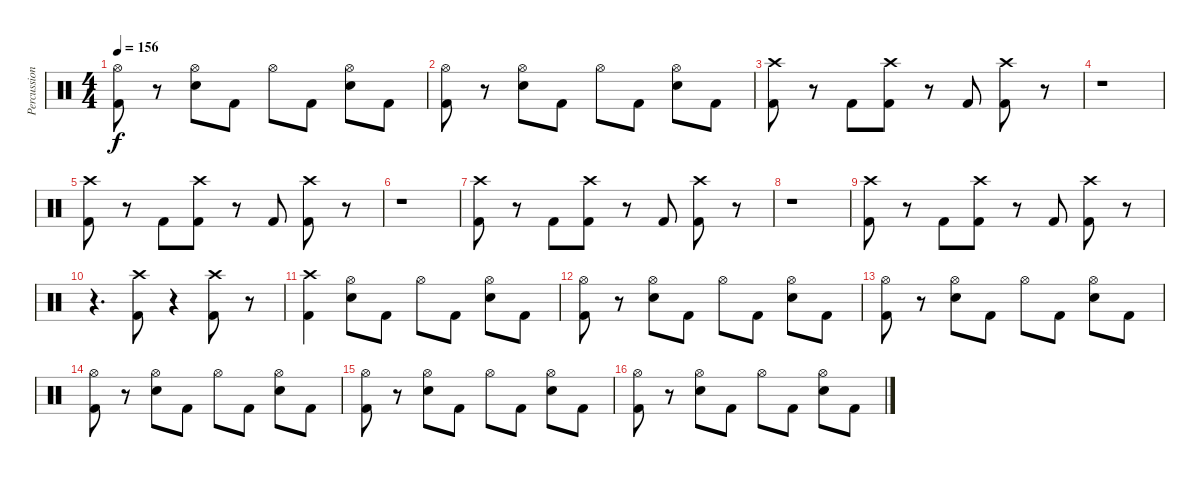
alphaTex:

\track ("Percussion" "Percussion") {instrument percussion}
\staff {score}
\articulation defaults
\ts (4 4)
\tempo 156
\clef neutral
\ks c
("Hi-Hat (open)" "Kick (hit) 2").8{dy f} r.8 ("Hi-Hat (open)" "Snare (hit) 2").8 "Kick (hit) 2".8 "Hi-Hat (open)".8 "Kick (hit) 2".8 ("Hi-Hat (open)" "Snare (hit) 2").8 "Kick (hit) 2".8 |
("Hi-Hat (open)" "Kick (hit) 2").8 r.8 ("Hi-Hat (open)" "Snare (hit) 2").8 "Kick (hit) 2".8 "Hi-Hat (open)".8 "Kick (hit) 2".8 ("Hi-Hat (open)" "Snare (hit) 2").8 "Kick (hit) 2".8 |
("Crash high (hit)" "Kick (hit) 2").8 r.8 "Kick (hit) 2".8 ("Crash high (hit)" "Kick (hit) 2").8 r.8 "Kick (hit) 2".8 ("Crash high (hit)" "Kick (hit) 2").8 r.8 |
r.1 |
("Crash high (hit)" "Kick (hit) 2").8 r.8 "Kick (hit) 2".8 ("Crash high (hit)" "Kick (hit) 2").8 r.8 "Kick (hit) 2".8 ("Crash high (hit)" "Kick (hit) 2").8 r.8 |
r.1 |
("Crash high (hit)" "Kick (hit) 2").8 r.8 "Kick (hit) 2".8 ("Crash high (hit)" "Kick (hit) 2").8 r.8 "Kick (hit) 2".8 ("Crash high (hit)" "Kick (hit) 2").8 r.8 |
r.1 |
("Crash high (hit)" "Kick (hit) 2").8 r.8 "Kick (hit) 2".8 ("Crash high (hit)" "Kick (hit) 2").8 r.8 "Kick (hit) 2".8 ("Crash high (hit)" "Kick (hit) 2").8 r.8 |
r.4{d} ("Kick (hit) 2" "Crash high (hit)").8 r.4 ("Kick (hit) 2" "Crash high (hit)").8 r.8 |
("Crash high (hit)" "Kick (hit) 2").4 ("Hi-Hat (open)" "Snare (hit) 2").8 "Kick (hit) 2".8 "Hi-Hat (open)".8 "Kick (hit) 2".8 ("Hi-Hat (open)" "Snare (hit) 2").8 "Kick (hit) 2".8 |
("Hi-Hat (open)" "Kick (hit) 2").8 r.8 ("Hi-Hat (open)" "Snare (hit) 2").8 "Kick (hit) 2".8 "Hi-Hat (open)".8 "Kick (hit) 2".8 ("Hi-Hat (open)" "Snare (hit) 2").8 "Kick (hit) 2".8 |
("Hi-Hat (open)" "Kick (hit) 2").8 r.8 ("Hi-Hat (open)" "Snare (hit) 2").8 "Kick (hit) 2".8 "Hi-Hat (open)".8 "Kick (hit) 2".8 ("Hi-Hat (open)" "Snare (hit) 2").8 "Kick (hit) 2".8 |
("Hi-Hat (open)" "Kick (hit) 2").8 r.8 ("Hi-Hat (open)" "Snare (hit) 2").8 "Kick (hit) 2".8 "Hi-Hat (open)".8 "Kick (hit) 2".8 ("Hi-Hat (open)" "Snare (hit) 2").8 "Kick (hit) 2".8 |
("Hi-Hat (open)" "Kick (hit) 2").8 r.8 ("Hi-Hat (open)" "Snare (hit) 2").8 "Kick (hit) 2".8 "Hi-Hat (open)".8 "Kick (hit) 2".8 ("Hi-Hat (open)" "Snare (hit) 2").8 "Kick (hit) 2".8 |
("Hi-Hat (open)" "Kick (hit) 2").8 r.8 ("Hi-Hat (open)" "Snare (hit) 2").8 "Kick (hit) 2".8 "Hi-Hat (open)".8 "Kick (hit) 2".8 ("Hi-Hat (open)" "Snare (hit) 2").8 "Kick (hit) 2".8
